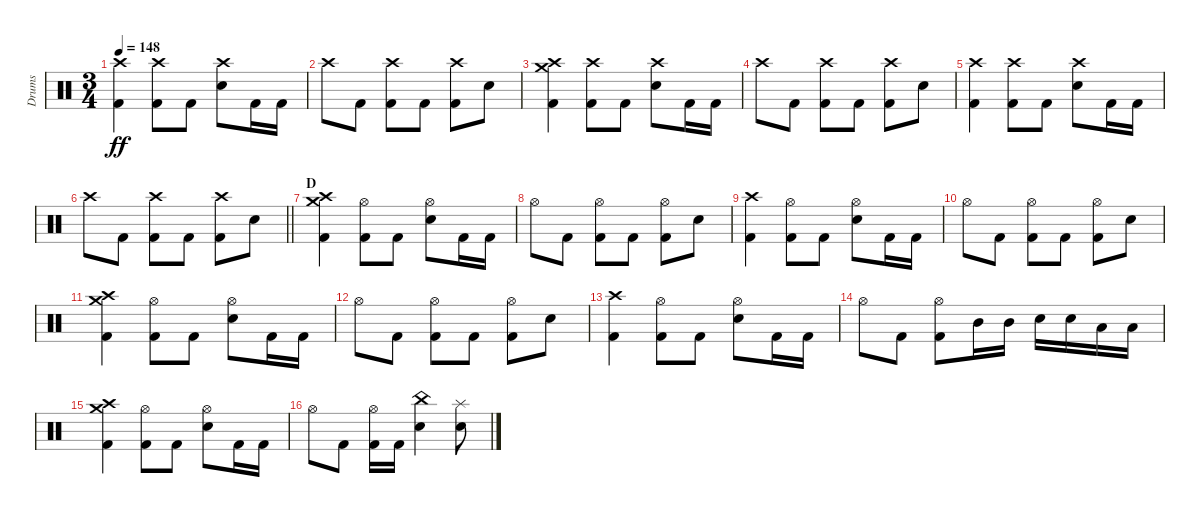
\track ("Drums" "Drums") {instrument percussion}
\staff {score}
\articulation defaults
\ts (3 4)
\tempo 148
\clef neutral
\ks c
("Crash high (hit)" "Kick (hit) 2").4{dy ff} ("Crash high (hit)" "Kick (hit) 2").8 "Kick (hit) 2".8 ("Crash high (hit)" "Electric Snare (hit)").8 "Kick (hit) 2".16 "Kick (hit) 2".16 |
"Crash high (hit)".8 "Kick (hit) 2".8 ("Crash high (hit)" "Kick (hit) 2").8 "Kick (hit) 2".8 ("Crash high (hit)" "Kick (hit) 2").8 "Electric Snare (hit)".8 |
("Crash medium (hit)" "Crash high (hit)" "Kick (hit) 2").4 ("Crash high (hit)" "Kick (hit) 2").8 "Kick (hit) 2".8 ("Crash high (hit)" "Electric Snare (hit)").8 "Kick (hit) 2".16 "Kick (hit) 2".16 |
"Crash high (hit)".8 "Kick (hit) 2".8 ("Crash high (hit)" "Kick (hit) 2").8 "Kick (hit) 2".8 ("Crash high (hit)" "Kick (hit) 2").8 "Electric Snare (hit)".8 |
("Crash high (hit)" "Kick (hit) 2").4 ("Crash high (hit)" "Kick (hit) 2").8 "Kick (hit) 2".8 ("Crash high (hit)" "Electric Snare (hit)").8 "Kick (hit) 2".16 "Kick (hit) 2".16 |
\barLineRight lightlight "Crash high (hit)".8 "Kick (hit) 2".8
("Crash high (hit)" "Kick (hit) 2").8 "Kick (hit) 2".8 ("Crash high (hit)" "Kick (hit) 2").8 "Electric Snare (hit)".8 |
\section ("" "D")
("Crash medium (hit)" "Crash high (hit)" "Kick (hit) 2").4 ("Hi-Hat (open)" "Kick (hit) 2").8 "Kick (hit) 2".8 ("Hi-Hat (open)" "Electric Snare (hit)").8 "Kick (hit) 2".16 "Kick (hit) 2".16 |
"Hi-Hat (open)".8 "Kick (hit) 2".8 ("Hi-Hat (open)" "Kick (hit) 2").8 "Kick (hit) 2".8 ("Hi-Hat (open)" "Kick (hit) 2").8 "Electric Snare (hit)".8 |
("Crash high (hit)" "Kick (hit) 2").4 ("Hi-Hat (open)" "Kick (hit) 2").8 "Kick (hit) 2".8 ("Hi-Hat (open)" "Electric Snare (hit)").8 "Kick (hit) 2".16 "Kick (hit) 2".16 |
"Hi-Hat (open)".8 "Kick (hit) 2".8 ("Hi-Hat (open)" "Kick (hit) 2").8 "Kick (hit) 2".8 ("Hi-Hat (open)" "Kick (hit) 2").8 "Electric Snare (hit)".8 |
("Crash medium (hit)" "Crash high (hit)" "Kick (hit) 2").4 ("Hi-Hat (open)" "Kick (hit) 2").8 "Kick (hit) 2".8 ("Hi-Hat (open)" "Electric Snare (hit)").8 "Kick (hit) 2".16 "Kick (hit) 2".16 |
"Hi-Hat (open)".8 "Kick (hit) 2".8 ("Hi-Hat (open)" "Kick (hit) 2").8 "Kick (hit) 2".8 ("Hi-Hat (open)" "Kick (hit) 2").8 "Electric Snare (hit)".8 |
("Crash high (hit)" "Kick (hit) 2").4 ("Hi-Hat (open)" "Kick (hit) 2").8 "Kick (hit) 2".8 ("Hi-Hat (open)" "Electric Snare (hit)").8 "Kick (hit) 2".16 "Kick (hit) 2".16 |
"Hi-Hat (open)".8 "Kick (hit) 2".8 ("Hi-Hat (open)" "Kick (hit) 2").8 "Mid Tom (hit)".16 "Mid Tom (hit)".16 "Electric Snare (hit)".16 "Electric Snare (hit)".16 "Low Tom (hit)".16 "Low Tom (hit)".16 |
("Crash medium (hit)" "Crash high (hit)" "Kick (hit) 2").4 ("Hi-Hat (open)" "Kick (hit) 2").8 "Kick (hit) 2".8 ("Hi-Hat (open)" "Electric Snare (hit)").8 "Kick (hit) 2".16 "Kick (hit) 2".16 |
"Hi-Hat (open)".8 "Kick (hit) 2".8 ("Hi-Hat (open)" "Kick (hit) 2").16 "Kick (hit) 2".16 ("China (hit)" "Electric Snare (hit)").4 ("Splash (hit)" "Electric Snare (hit)").8
